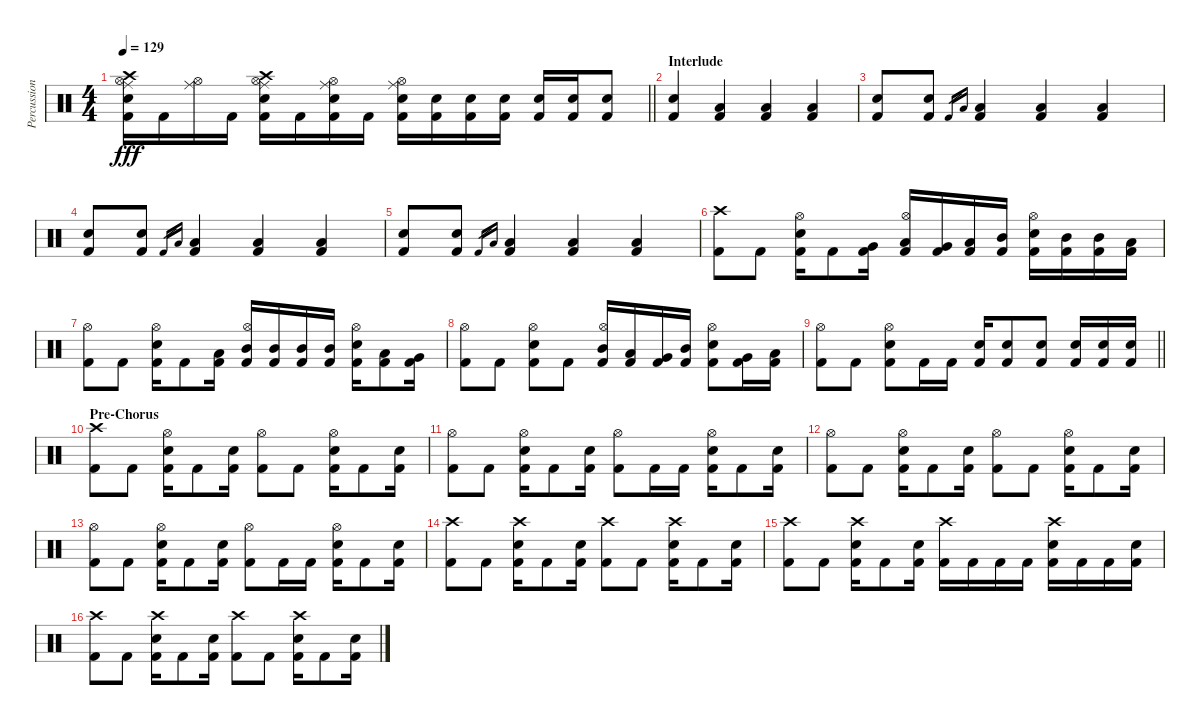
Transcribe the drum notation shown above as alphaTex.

\track ("Percussions" "Percussion") {instrument percussion}
\staff {score}
\articulation defaults
\ts (4 4)
\tempo 129
\clef neutral
\barLineRight lightlight
\ks c
("Kick (hit) 2" "Snare (hit) 2" "Hi-Hat (open)" "Crash high (hit)" "Ride (middle)").16{dy fff} "Kick (hit) 2".16 ("Hi-Hat (open)" "Ride (middle)").16 "Kick (hit) 2".16 ("Kick (hit) 2" "Snare (hit) 2" "Hi-Hat (open)" "Crash high (hit)" "Ride (middle)").16 "Kick (hit) 2".16 ("Kick (hit) 2" "Snare (hit) 2" "Hi-Hat (open)" "Ride (middle)").16 "Kick (hit) 2".16 ("Kick (hit) 2" "Snare (hit) 2" "Hi-Hat (open)" "Ride (middle)").16 ("Kick (hit) 2" "Snare (hit) 2").16 ("Kick (hit) 2" "Snare (hit) 2").16 ("Kick (hit) 2" "Snare (hit) 2").16 ("Kick (hit) 2" "Snare (hit) 2").16 ("Kick (hit) 2" "Snare (hit) 2").16 ("Kick (hit) 2" "Snare (hit) 2").8 |
\section ("" "Interlude")
("Kick (hit) 2" "Snare (hit) 2").4 ("Kick (hit) 2" "Low Floor Tom (hit)").4 ("Kick (hit) 2" "Low Floor Tom (hit)").4 ("Kick (hit) 2" "Low Floor Tom (hit)").4 |
("Kick (hit) 2" "Snare (hit) 2").8 ("Kick (hit) 2" "Snare (hit) 2").8 "Kick (hit) 2".16{gr} "Low Floor Tom (hit)".16{gr} ("Kick (hit) 2" "Low Floor Tom (hit)").4 ("Kick (hit) 2" "Low Floor Tom (hit)").4 ("Kick (hit) 2" "Low Floor Tom (hit)").4 |
("Kick (hit) 2" "Snare (hit) 2").8 ("Kick (hit) 2" "Snare (hit) 2").8 "Kick (hit) 2".16{gr} "Low Floor Tom (hit)".16{gr} ("Kick (hit) 2" "Low Floor Tom (hit)").4 ("Kick (hit) 2" "Low Floor Tom (hit)").4 ("Kick (hit) 2" "Low Floor Tom (hit)").4 |
("Kick (hit) 2" "Snare (hit) 2").8 ("Kick (hit) 2" "Snare (hit) 2").8 "Kick (hit) 2".16{gr} "Low Floor Tom (hit)".16{gr} ("Kick (hit) 2" "Low Floor Tom (hit)").4 ("Kick (hit) 2" "Low Floor Tom (hit)").4 ("Kick (hit) 2" "Low Floor Tom (hit)").4 |
("Kick (hit) 2" "Crash high (hit)").8 "Kick (hit) 2".8 ("Kick (hit) 2" "Snare (hit) 2" "Hi-Hat (open)").16 "Kick (hit) 2".8 ("Kick (hit) 2" "Very Low Tom (hit)").16 ("Kick (hit) 2" "Low Floor Tom (hit)" "Hi-Hat (open)").16 ("Kick (hit) 2" "Very Low Tom (hit)").16 ("Kick (hit) 2" "Low Tom (hit)").16 ("Kick (hit) 2" "Mid Tom (hit)").16 ("Kick (hit) 2" "Snare (hit) 2" "Hi-Hat (open)").16 ("Kick (hit) 2" "Mid Tom (hit)").16 ("Kick (hit) 2" "Mid Tom (hit)").16 ("Kick (hit) 2" "Low Tom (hit)").16 |
("Kick (hit) 2" "Hi-Hat (open)").8 "Kick (hit) 2".8 ("Kick (hit) 2" "Snare (hit) 2" "Hi-Hat (open)").16 "Kick (hit) 2".8 ("Kick (hit) 2" "Low Tom (hit)").16 ("Kick (hit) 2" "Mid Tom (hit)" "Hi-Hat (open)").16 ("Kick (hit) 2" "Mid Tom (hit)").16 ("Kick (hit) 2" "Mid Tom (hit)").16 ("Kick (hit) 2" "Mid Tom (hit)").16 ("Kick (hit) 2" "Snare (hit) 2" "Hi-Hat (open)").16 ("Kick (hit) 2" "Low Tom (hit)").8 ("Kick (hit) 2" "Very Low Tom (hit)").16 |
("Kick (hit) 2" "Hi-Hat (open)").8 "Kick (hit) 2".8 ("Kick (hit) 2" "Snare (hit) 2" "Hi-Hat (open)").8 "Kick (hit) 2".8 ("Kick (hit) 2" "Mid Tom (hit)" "Hi-Hat (open)").16 ("Kick (hit) 2" "Low Tom (hit)").16 ("Kick (hit) 2" "Very Low Tom (hit)").16 ("Kick (hit) 2" "Mid Tom (hit)").16 ("Kick (hit) 2" "Snare (hit) 2" "Hi-Hat (open)").8 ("Kick (hit) 2" "Very Low Tom (hit)").16 ("Kick (hit) 2" "Low Tom (hit)").16 |
\barLineRight lightlight
("Kick (hit) 2" "Hi-Hat (open)").8 "Kick (hit) 2".8 ("Kick (hit) 2" "Snare (hit) 2" "Hi-Hat (open)").8 "Kick (hit) 2".16 "Kick (hit) 2".16 ("Kick (hit) 2" "Snare (hit) 2").16 ("Kick (hit) 2" "Snare (hit) 2").8 ("Kick (hit) 2" "Snare (hit) 2").8 ("Kick (hit) 2" "Snare (hit) 2").16 ("Kick (hit) 2" "Snare (hit) 2").16 ("Kick (hit) 2" "Snare (hit) 2").16 |
\section ("" "Pre-Chorus")
("Kick (hit) 2" "Crash high (hit)").8 "Kick (hit) 2".8 ("Kick (hit) 2" "Snare (hit) 2" "Hi-Hat (open)").16 "Kick (hit) 2".8 ("Kick (hit) 2" "Snare (hit) 2").16 ("Kick (hit) 2" "Hi-Hat (open)").8 "Kick (hit) 2".8 ("Kick (hit) 2" "Snare (hit) 2" "Hi-Hat (open)").16 "Kick (hit) 2".8 ("Kick (hit) 2" "Snare (hit) 2").16 |
("Kick (hit) 2" "Hi-Hat (open)").8 "Kick (hit) 2".8 ("Kick (hit) 2" "Snare (hit) 2" "Hi-Hat (open)").16 "Kick (hit) 2".8 ("Kick (hit) 2" "Snare (hit) 2").16 ("Kick (hit) 2" "Hi-Hat (open)").8 "Kick (hit) 2".16 "Kick (hit) 2".16 ("Kick (hit) 2" "Snare (hit) 2" "Hi-Hat (open)").16 "Kick (hit) 2".8 ("Kick (hit) 2" "Snare (hit) 2").16 |
("Kick (hit) 2" "Hi-Hat (open)").8 "Kick (hit) 2".8 ("Kick (hit) 2" "Snare (hit) 2" "Hi-Hat (open)").16 "Kick (hit) 2".8 ("Kick (hit) 2" "Snare (hit) 2").16 ("Kick (hit) 2" "Hi-Hat (open)").8 "Kick (hit) 2".8 ("Kick (hit) 2" "Snare (hit) 2" "Hi-Hat (open)").16 "Kick (hit) 2".8 ("Kick (hit) 2" "Snare (hit) 2").16 |
("Kick (hit) 2" "Hi-Hat (open)").8 "Kick (hit) 2".8 ("Kick (hit) 2" "Snare (hit) 2" "Hi-Hat (open)").16 "Kick (hit) 2".8 ("Kick (hit) 2" "Snare (hit) 2").16 ("Kick (hit) 2" "Hi-Hat (open)").8 "Kick (hit) 2".16 "Kick (hit) 2".16 ("Kick (hit) 2" "Snare (hit) 2" "Hi-Hat (open)").16 "Kick (hit) 2".8 ("Kick (hit) 2" "Snare (hit) 2").16 |
("Kick (hit) 2" "Crash high (hit)").8 "Kick (hit) 2".8 ("Kick (hit) 2" "Snare (hit) 2" "Crash high (hit)").16 "Kick (hit) 2".8 ("Kick (hit) 2" "Snare (hit) 2").16 ("Kick (hit) 2" "Crash high (hit)").8 "Kick (hit) 2".8 ("Kick (hit) 2" "Snare (hit) 2" "Crash high (hit)").16 "Kick (hit) 2".8 ("Kick (hit) 2" "Snare (hit) 2").16 |
("Kick (hit) 2" "Crash high (hit)").8 "Kick (hit) 2".8 ("Kick (hit) 2" "Snare (hit) 2" "Crash high (hit)").16 "Kick (hit) 2".8 ("Kick (hit) 2" "Snare (hit) 2").16 ("Kick (hit) 2" "Crash high (hit)").16 "Kick (hit) 2".16 "Kick (hit) 2".16 "Kick (hit) 2".16 ("Kick (hit) 2" "Snare (hit) 2" "Crash high (hit)").16 "Kick (hit) 2".16 "Kick (hit) 2".16 ("Kick (hit) 2" "Snare (hit) 2").16 |
("Kick (hit) 2" "Crash high (hit)").8 "Kick (hit) 2".8 ("Kick (hit) 2" "Snare (hit) 2" "Crash high (hit)").16 "Kick (hit) 2".8 ("Kick (hit) 2" "Snare (hit) 2").16 ("Kick (hit) 2" "Crash high (hit)").8 "Kick (hit) 2".8 ("Kick (hit) 2" "Snare (hit) 2" "Crash high (hit)").16 "Kick (hit) 2".8 ("Kick (hit) 2" "Snare (hit) 2").16
